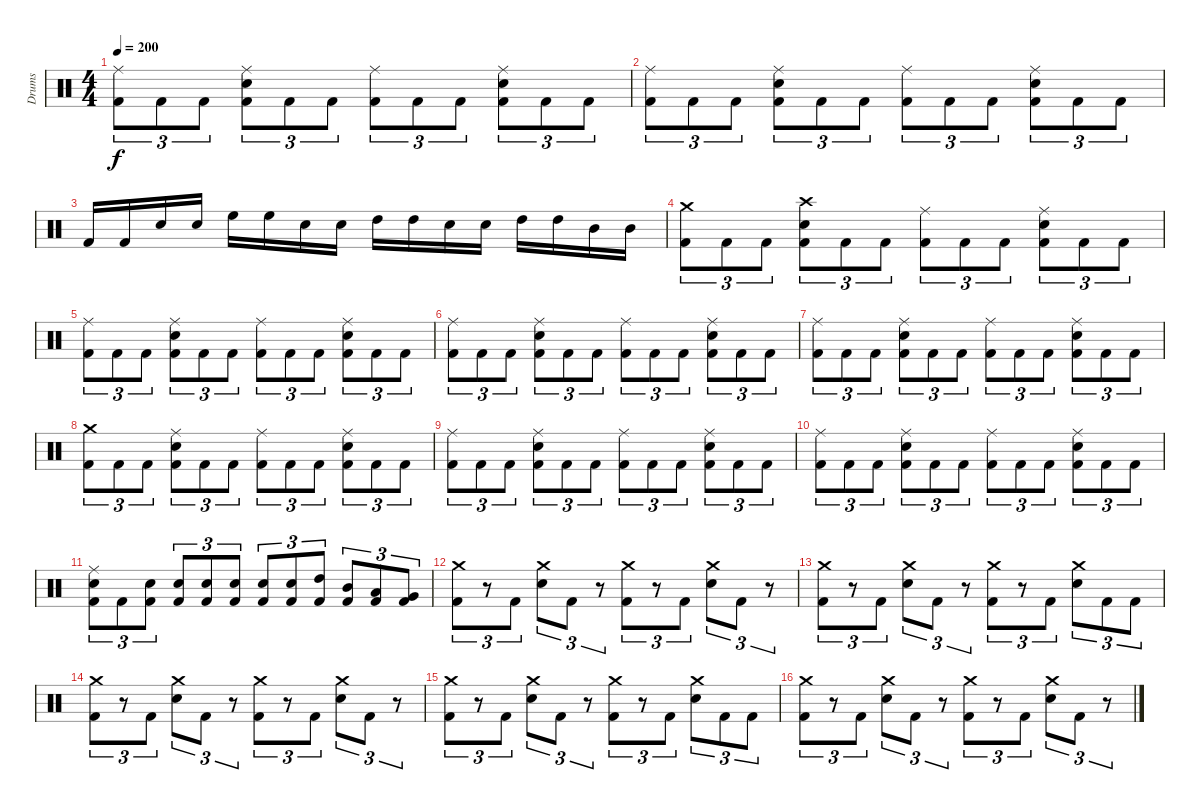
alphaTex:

\track ("Drums" "Drums") {instrument percussion}
\staff {score}
\articulation defaults
\ts (4 4)
\tempo 200
\clef neutral
\ks c
("Ride (middle)" "Kick (hit) 2").8{tu (3 2) dy f} "Kick (hit) 2".8{tu (3 2)} "Kick (hit) 2".8{tu (3 2)} ("Ride (middle)" "Electric Snare (hit)" "Kick (hit) 2").8{tu (3 2)} "Kick (hit) 2".8{tu (3 2)} "Kick (hit) 2".8{tu (3 2)} ("Ride (middle)" "Kick (hit) 2").8{tu (3 2)} "Kick (hit) 2".8{tu (3 2)} "Kick (hit) 2".8{tu (3 2)} ("Ride (middle)" "Electric Snare (hit)" "Kick (hit) 2").8{tu (3 2)} "Kick (hit) 2".8{tu (3 2)} "Kick (hit) 2".8{tu (3 2)} |
("Ride (middle)" "Kick (hit) 2").8{tu (3 2)} "Kick (hit) 2".8{tu (3 2)} "Kick (hit) 2".8{tu (3 2)} ("Ride (middle)" "Electric Snare (hit)" "Kick (hit) 2").8{tu (3 2)} "Kick (hit) 2".8{tu (3 2)} "Kick (hit) 2".8{tu (3 2)} ("Ride (middle)" "Kick (hit) 2").8{tu (3 2)} "Kick (hit) 2".8{tu (3 2)} "Kick (hit) 2".8{tu (3 2)} ("Ride (middle)" "Electric Snare (hit)" "Kick (hit) 2").8{tu (3 2)} "Kick (hit) 2".8{tu (3 2)} "Kick (hit) 2".8{tu (3 2)} |
"Kick (hit) 2".16 "Kick (hit) 2".16 "Electric Snare (hit)".16 "Electric Snare (hit)".16 "High Floor Tom (hit)".16 "High Floor Tom (hit)".16 "Electric Snare (hit)".16 "Electric Snare (hit)".16 "High Tom (hit)".16 "High Tom (hit)".16 "Electric Snare (hit)".16 "Electric Snare (hit)".16 "High Tom (hit)".16 "High Tom (hit)".16 "Mid Tom (hit)".16 "Mid Tom (hit)".16 |
("Crash medium (hit)" "Kick (hit) 2").8{tu (3 2)} "Kick (hit) 2".8{tu (3 2)} "Kick (hit) 2".8{tu (3 2)} ("Crash high (hit)" "Electric Snare (hit)" "Kick (hit) 2").8{tu (3 2)} "Kick (hit) 2".8{tu (3 2)} "Kick (hit) 2".8{tu (3 2)} ("Ride (middle)" "Kick (hit) 2").8{tu (3 2)} "Kick (hit) 2".8{tu (3 2)} "Kick (hit) 2".8{tu (3 2)} ("Ride (middle)" "Electric Snare (hit)" "Kick (hit) 2").8{tu (3 2)} "Kick (hit) 2".8{tu (3 2)} "Kick (hit) 2".8{tu (3 2)} |
("Ride (middle)" "Kick (hit) 2").8{tu (3 2)} "Kick (hit) 2".8{tu (3 2)} "Kick (hit) 2".8{tu (3 2)} ("Ride (middle)" "Electric Snare (hit)" "Kick (hit) 2").8{tu (3 2)} "Kick (hit) 2".8{tu (3 2)} "Kick (hit) 2".8{tu (3 2)} ("Ride (middle)" "Kick (hit) 2").8{tu (3 2)} "Kick (hit) 2".8{tu (3 2)} "Kick (hit) 2".8{tu (3 2)} ("Ride (middle)" "Electric Snare (hit)" "Kick (hit) 2").8{tu (3 2)} "Kick (hit) 2".8{tu (3 2)} "Kick (hit) 2".8{tu (3 2)} |
("Ride (middle)" "Kick (hit) 2").8{tu (3 2)} "Kick (hit) 2".8{tu (3 2)} "Kick (hit) 2".8{tu (3 2)} ("Ride (middle)" "Electric Snare (hit)" "Kick (hit) 2").8{tu (3 2)} "Kick (hit) 2".8{tu (3 2)} "Kick (hit) 2".8{tu (3 2)} ("Ride (middle)" "Kick (hit) 2").8{tu (3 2)} "Kick (hit) 2".8{tu (3 2)} "Kick (hit) 2".8{tu (3 2)} ("Ride (middle)" "Electric Snare (hit)" "Kick (hit) 2").8{tu (3 2)} "Kick (hit) 2".8{tu (3 2)} "Kick (hit) 2".8{tu (3 2)} |
("Ride (middle)" "Kick (hit) 2").8{tu (3 2)} "Kick (hit) 2".8{tu (3 2)} "Kick (hit) 2".8{tu (3 2)} ("Ride (middle)" "Electric Snare (hit)" "Kick (hit) 2").8{tu (3 2)} "Kick (hit) 2".8{tu (3 2)} "Kick (hit) 2".8{tu (3 2)} ("Ride (middle)" "Kick (hit) 2").8{tu (3 2)} "Kick (hit) 2".8{tu (3 2)} "Kick (hit) 2".8{tu (3 2)} ("Ride (middle)" "Electric Snare (hit)" "Kick (hit) 2").8{tu (3 2)} "Kick (hit) 2".8{tu (3 2)} "Kick (hit) 2".8{tu (3 2)} |
("Crash medium (hit)" "Kick (hit) 2").8{tu (3 2)} "Kick (hit) 2".8{tu (3 2)} "Kick (hit) 2".8{tu (3 2)} ("Ride (middle)" "Electric Snare (hit)" "Kick (hit) 2").8{tu (3 2)} "Kick (hit) 2".8{tu (3 2)} "Kick (hit) 2".8{tu (3 2)} ("Ride (middle)" "Kick (hit) 2").8{tu (3 2)} "Kick (hit) 2".8{tu (3 2)} "Kick (hit) 2".8{tu (3 2)} ("Ride (middle)" "Electric Snare (hit)" "Kick (hit) 2").8{tu (3 2)} "Kick (hit) 2".8{tu (3 2)} "Kick (hit) 2".8{tu (3 2)} |
("Ride (middle)" "Kick (hit) 2").8{tu (3 2)} "Kick (hit) 2".8{tu (3 2)} "Kick (hit) 2".8{tu (3 2)} ("Ride (middle)" "Electric Snare (hit)" "Kick (hit) 2").8{tu (3 2)} "Kick (hit) 2".8{tu (3 2)} "Kick (hit) 2".8{tu (3 2)} ("Ride (middle)" "Kick (hit) 2").8{tu (3 2)} "Kick (hit) 2".8{tu (3 2)} "Kick (hit) 2".8{tu (3 2)} ("Ride (middle)" "Electric Snare (hit)" "Kick (hit) 2").8{tu (3 2)} "Kick (hit) 2".8{tu (3 2)} "Kick (hit) 2".8{tu (3 2)} |
("Ride (middle)" "Kick (hit) 2").8{tu (3 2)} "Kick (hit) 2".8{tu (3 2)} "Kick (hit) 2".8{tu (3 2)} ("Ride (middle)" "Electric Snare (hit)" "Kick (hit) 2").8{tu (3 2)} "Kick (hit) 2".8{tu (3 2)} "Kick (hit) 2".8{tu (3 2)} ("Ride (middle)" "Kick (hit) 2").8{tu (3 2)} "Kick (hit) 2".8{tu (3 2)} "Kick (hit) 2".8{tu (3 2)} ("Ride (middle)" "Electric Snare (hit)" "Kick (hit) 2").8{tu (3 2)} "Kick (hit) 2".8{tu (3 2)} "Kick (hit) 2".8{tu (3 2)} |
("Ride (middle)" "Electric Snare (hit)" "Kick (hit) 2").8{tu (3 2)} "Kick (hit) 2".8{tu (3 2)} ("Electric Snare (hit)" "Kick (hit) 2").8{tu (3 2)} ("Electric Snare (hit)" "Kick (hit) 2").8{tu (3 2)} ("Electric Snare (hit)" "Kick (hit) 2").8{tu (3 2)} ("Electric Snare (hit)" "Kick (hit) 2").8{tu (3 2)} ("Electric Snare (hit)" "Kick (hit) 2").8{tu (3 2)} ("Electric Snare (hit)" "Kick (hit) 2").8{tu (3 2)} ("High Tom (hit)" "Kick (hit) 2").8{tu (3 2)} ("Mid Tom (hit)" "Kick (hit) 2").8{tu (3 2)} ("Low Tom (hit)" "Kick (hit) 2").8{tu (3 2)} ("Very Low Tom (hit)" "Kick (hit) 2").8{tu (3 2)} |
("Crash medium (hit)" "Kick (hit) 2").8{tu (3 2)} r.8{tu (3 2)} "Kick (hit) 2".8{tu (3 2)} ("Crash medium (hit)" "Electric Snare (hit)").8{tu (3 2)} "Kick (hit) 2".8{tu (3 2)} r.8{tu (3 2)} ("Crash medium (hit)" "Kick (hit) 2").8{tu (3 2)} r.8{tu (3 2)} "Kick (hit) 2".8{tu (3 2)} ("Crash medium (hit)" "Electric Snare (hit)").8{tu (3 2)} "Kick (hit) 2".8{tu (3 2)} r.8{tu (3 2)} |
("Crash medium (hit)" "Kick (hit) 2").8{tu (3 2)} r.8{tu (3 2)} "Kick (hit) 2".8{tu (3 2)} ("Crash medium (hit)" "Electric Snare (hit)").8{tu (3 2)} "Kick (hit) 2".8{tu (3 2)} r.8{tu (3 2)} ("Crash medium (hit)" "Kick (hit) 2").8{tu (3 2)} r.8{tu (3 2)} "Kick (hit) 2".8{tu (3 2)} ("Crash medium (hit)" "Electric Snare (hit)").8{tu (3 2)} "Kick (hit) 2".8{tu (3 2)} "Kick (hit) 2".8{tu (3 2)} |
("Crash medium (hit)" "Kick (hit) 2").8{tu (3 2)} r.8{tu (3 2)} "Kick (hit) 2".8{tu (3 2)} ("Crash medium (hit)" "Electric Snare (hit)").8{tu (3 2)} "Kick (hit) 2".8{tu (3 2)} r.8{tu (3 2)} ("Crash medium (hit)" "Kick (hit) 2").8{tu (3 2)} r.8{tu (3 2)} "Kick (hit) 2".8{tu (3 2)} ("Crash medium (hit)" "Electric Snare (hit)").8{tu (3 2)} "Kick (hit) 2".8{tu (3 2)} r.8{tu (3 2)} |
("Crash medium (hit)" "Kick (hit) 2").8{tu (3 2)} r.8{tu (3 2)} "Kick (hit) 2".8{tu (3 2)} ("Crash medium (hit)" "Electric Snare (hit)").8{tu (3 2)} "Kick (hit) 2".8{tu (3 2)} r.8{tu (3 2)} ("Crash medium (hit)" "Kick (hit) 2").8{tu (3 2)} r.8{tu (3 2)} "Kick (hit) 2".8{tu (3 2)} ("Crash medium (hit)" "Electric Snare (hit)").8{tu (3 2)} "Kick (hit) 2".8{tu (3 2)} "Kick (hit) 2".8{tu (3 2)} |
("Crash medium (hit)" "Kick (hit) 2").8{tu (3 2)} r.8{tu (3 2)} "Kick (hit) 2".8{tu (3 2)} ("Crash medium (hit)" "Electric Snare (hit)").8{tu (3 2)} "Kick (hit) 2".8{tu (3 2)} r.8{tu (3 2)} ("Crash medium (hit)" "Kick (hit) 2").8{tu (3 2)} r.8{tu (3 2)} "Kick (hit) 2".8{tu (3 2)} ("Crash medium (hit)" "Electric Snare (hit)").8{tu (3 2)} "Kick (hit) 2".8{tu (3 2)} r.8{tu (3 2)}
